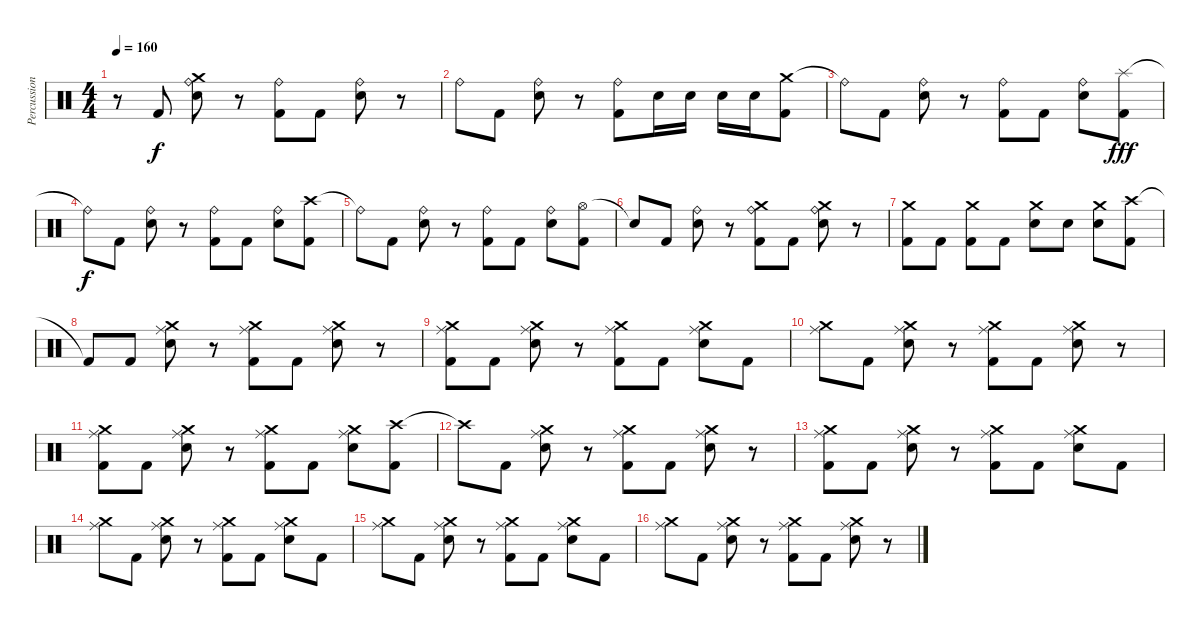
\track ("Percussion" "Percussion") {instrument percussion}
\staff {score}
\articulation defaults
\ts (4 4)
\tempo 160
\clef neutral
\ks c
r.8{dy f} "Kick (hit) 2".8 ("Crash medium (hit)" "Ride (bell)" "Electric Snare (hit)").8 r.8 ("Ride (bell)" "Kick (hit) 2").8 "Kick (hit) 2".8 ("Ride (bell)" "Electric Snare (hit)").8 r.8 |
"Ride (bell)".8 "Kick (hit) 2".8 ("Ride (bell)" "Electric Snare (hit)").8 r.8 ("Ride (bell)" "Kick (hit) 2").8 "Electric Snare (hit)".16 "Electric Snare (hit)".16 "Electric Snare (hit)".16 "Electric Snare (hit)".16 ("Crash medium (hit)" "Kick (hit) 2").8 |
"Ride (bell)"{t}.8 "Kick (hit) 2".8 ("Ride (bell)" "Electric Snare (hit)").8 r.8 ("Ride (bell)" "Kick (hit) 2").8 "Kick (hit) 2".8 ("Ride (bell)" "Electric Snare (hit)").8 ("Splash (hit)" "Kick (hit) 2").8{dy fff} |
"Ride (bell)"{t}.8{dy f} "Kick (hit) 2".8 ("Ride (bell)" "Electric Snare (hit)").8 r.8 ("Ride (bell)" "Kick (hit) 2").8 "Kick (hit) 2".8 ("Ride (bell)" "Electric Snare (hit)").8 ("Crash high (hit)" "Kick (hit) 2").8 |
"Ride (bell)"{t}.8 "Kick (hit) 2".8 ("Ride (bell)" "Electric Snare (hit)").8 r.8 ("Ride (bell)" "Kick (hit) 2").8 "Kick (hit) 2".8 ("Ride (bell)" "Electric Snare (hit)").8 ("Hi-Hat (open)" "Kick (hit) 2").8 |
"Snare (hit)"{t}.8 "Kick (hit) 2".8 ("Ride (bell)" "Electric Snare (hit)").8 r.8 ("Crash medium (hit)" "Ride (bell)" "Kick (hit) 2").8 "Kick (hit) 2".8 ("Crash medium (hit)" "Ride (bell)" "Electric Snare (hit)").8 r.8 |
("Crash medium (hit)" "Kick (hit) 2").8 "Kick (hit) 2".8 ("Crash medium (hit)" "Kick (hit) 2").8 "Kick (hit) 2".8 ("Crash medium (hit)" "Electric Snare (hit)").8 "Electric Snare (hit)".8 ("Crash medium (hit)" "Electric Snare (hit)").8 ("Crash high (hit)" "Kick (hit) 2").8 |
"Kick (hit) 2"{t}.8 "Kick (hit) 2".8 ("Ride (middle)" "Crash medium (hit)" "Electric Snare (hit)").8 r.8 ("Ride (middle)" "Crash medium (hit)" "Kick (hit) 2").8 "Kick (hit) 2".8 ("Ride (middle)" "Crash medium (hit)" "Electric Snare (hit)").8 r.8 |
("Ride (middle)" "Crash medium (hit)" "Kick (hit) 2").8 "Kick (hit) 2".8 ("Ride (middle)" "Crash medium (hit)" "Electric Snare (hit)").8 r.8 ("Ride (middle)" "Crash medium (hit)" "Kick (hit) 2").8 "Kick (hit) 2".8 ("Ride (middle)" "Crash medium (hit)" "Electric Snare (hit)").8 "Kick (hit) 2".8 |
("Ride (middle)" "Crash medium (hit)").8 "Kick (hit) 2".8 ("Ride (middle)" "Crash medium (hit)" "Electric Snare (hit)").8 r.8 ("Ride (middle)" "Crash medium (hit)" "Kick (hit) 2").8 "Kick (hit) 2".8 ("Ride (middle)" "Crash medium (hit)" "Electric Snare (hit)").8 r.8 |
("Ride (middle)" "Crash medium (hit)" "Kick (hit) 2").8 "Kick (hit) 2".8 ("Ride (middle)" "Crash medium (hit)" "Electric Snare (hit)").8 r.8 ("Ride (middle)" "Crash medium (hit)" "Kick (hit) 2").8 "Kick (hit) 2".8 ("Ride (middle)" "Crash medium (hit)" "Electric Snare (hit)").8 ("Crash high (hit)" "Kick (hit) 2").8 |
"Crash high (hit)"{t}.8 "Kick (hit) 2".8 ("Ride (middle)" "Crash medium (hit)" "Electric Snare (hit)").8 r.8 ("Ride (middle)" "Crash medium (hit)" "Kick (hit) 2").8 "Kick (hit) 2".8 ("Ride (middle)" "Crash medium (hit)" "Electric Snare (hit)").8 r.8 |
("Ride (middle)" "Crash medium (hit)" "Kick (hit) 2").8 "Kick (hit) 2".8 ("Ride (middle)" "Crash medium (hit)" "Electric Snare (hit)").8 r.8 ("Ride (middle)" "Crash medium (hit)" "Kick (hit) 2").8 "Kick (hit) 2".8 ("Ride (middle)" "Crash medium (hit)" "Electric Snare (hit)").8 "Kick (hit) 2".8 |
("Ride (middle)" "Crash medium (hit)").8 "Kick (hit) 2".8 ("Ride (middle)" "Crash medium (hit)" "Electric Snare (hit)").8 r.8 ("Ride (middle)" "Crash medium (hit)" "Kick (hit) 2").8 "Kick (hit) 2".8 ("Ride (middle)" "Crash medium (hit)" "Electric Snare (hit)").8 "Kick (hit) 2".8 |
("Ride (middle)" "Crash medium (hit)").8 "Kick (hit) 2".8 ("Ride (middle)" "Crash medium (hit)" "Electric Snare (hit)").8 r.8 ("Ride (middle)" "Crash medium (hit)" "Kick (hit) 2").8 "Kick (hit) 2".8 ("Ride (middle)" "Crash medium (hit)" "Electric Snare (hit)").8 "Kick (hit) 2".8 |
("Ride (middle)" "Crash medium (hit)").8 "Kick (hit) 2".8 ("Ride (middle)" "Crash medium (hit)" "Electric Snare (hit)").8 r.8 ("Ride (middle)" "Crash medium (hit)" "Kick (hit) 2").8 "Kick (hit) 2".8 ("Ride (middle)" "Crash medium (hit)" "Electric Snare (hit)").8 r.8
